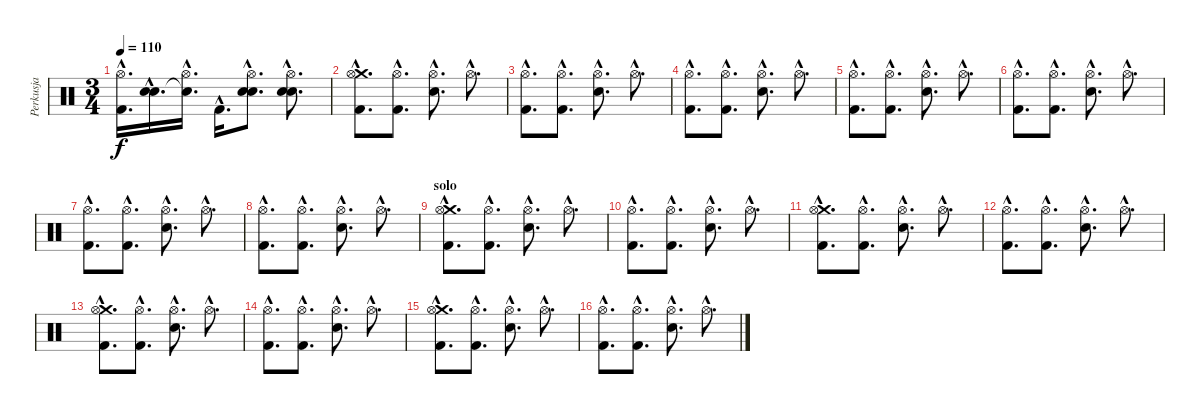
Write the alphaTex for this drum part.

\track ("Perkusja" "Perkusja") {instrument percussion}
\staff {score}
\articulation defaults
\ts (3 4)
\tempo 110
\clef neutral
\ks c
("Kick (hit) 2"{hac} "Hi-Hat (open)"{hac}).16{d dy f} ("Electric Snare (hit)"{hac} "Snare (hit) 2"{hac}).16{d} ("Snare (hit)"{hac t} "Hi-Hat (open)"{hac}).16{d} "Kick (hit) 2"{hac}.16{d} ("Electric Snare (hit)"{hac} "Snare (hit) 2"{hac} "Hi-Hat (open)"{hac}).8{d} ("Electric Snare (hit)"{hac} "Snare (hit) 2"{hac} "Hi-Hat (open)"{hac}).8{d} |
("Kick (hit) 2"{hac} "Crash medium (hit)"{hac} "Hi-Hat (open)"{hac}).8{d} ("Kick (hit) 2"{hac} "Hi-Hat (open)"{hac}).8{d} ("Electric Snare (hit)"{hac} "Hi-Hat (open)"{hac}).8{d} "Hi-Hat (open)"{hac}.8{d} |
("Kick (hit) 2"{hac} "Hi-Hat (open)"{hac}).8{d} ("Kick (hit) 2"{hac} "Hi-Hat (open)"{hac}).8{d} ("Electric Snare (hit)"{hac} "Hi-Hat (open)"{hac}).8{d} "Hi-Hat (open)"{hac}.8{d} |
("Kick (hit) 2"{hac} "Hi-Hat (open)"{hac}).8{d} ("Kick (hit) 2"{hac} "Hi-Hat (open)"{hac}).8{d} ("Electric Snare (hit)"{hac} "Hi-Hat (open)"{hac}).8{d} "Hi-Hat (open)"{hac}.8{d} |
("Kick (hit) 2"{hac} "Hi-Hat (open)"{hac}).8{d} ("Kick (hit) 2"{hac} "Hi-Hat (open)"{hac}).8{d} ("Electric Snare (hit)"{hac} "Hi-Hat (open)"{hac}).8{d} "Hi-Hat (open)"{hac}.8{d} |
("Kick (hit) 2"{hac} "Hi-Hat (open)"{hac}).8{d} ("Kick (hit) 2"{hac} "Hi-Hat (open)"{hac}).8{d} ("Electric Snare (hit)"{hac} "Hi-Hat (open)"{hac}).8{d} "Hi-Hat (open)"{hac}.8{d} |
("Kick (hit) 2"{hac} "Hi-Hat (open)"{hac}).8{d} ("Kick (hit) 2"{hac} "Hi-Hat (open)"{hac}).8{d} ("Electric Snare (hit)"{hac} "Hi-Hat (open)"{hac}).8{d} "Hi-Hat (open)"{hac}.8{d} |
("Kick (hit) 2"{hac} "Hi-Hat (open)"{hac}).8{d} ("Kick (hit) 2"{hac} "Hi-Hat (open)"{hac}).8{d} ("Electric Snare (hit)"{hac} "Hi-Hat (open)"{hac}).8{d} "Hi-Hat (open)"{hac}.8{d} |
\section ("" "solo")
("Kick (hit) 2"{hac} "Crash medium (hit)"{hac} "Hi-Hat (open)"{hac}).8{d} ("Kick (hit) 2"{hac} "Hi-Hat (open)"{hac}).8{d} ("Electric Snare (hit)"{hac} "Hi-Hat (open)"{hac}).8{d} "Hi-Hat (open)"{hac}.8{d} |
("Kick (hit) 2"{hac} "Hi-Hat (open)"{hac}).8{d} ("Kick (hit) 2"{hac} "Hi-Hat (open)"{hac}).8{d} ("Electric Snare (hit)"{hac} "Hi-Hat (open)"{hac}).8{d} "Hi-Hat (open)"{hac}.8{d} |
("Kick (hit) 2"{hac} "Crash medium (hit)"{hac} "Hi-Hat (open)"{hac}).8{d} ("Kick (hit) 2"{hac} "Hi-Hat (open)"{hac}).8{d} ("Electric Snare (hit)"{hac} "Hi-Hat (open)"{hac}).8{d} "Hi-Hat (open)"{hac}.8{d} |
("Kick (hit) 2"{hac} "Hi-Hat (open)"{hac}).8{d} ("Kick (hit) 2"{hac} "Hi-Hat (open)"{hac}).8{d} ("Electric Snare (hit)"{hac} "Hi-Hat (open)"{hac}).8{d} "Hi-Hat (open)"{hac}.8{d} |
("Kick (hit) 2"{hac} "Crash medium (hit)"{hac} "Hi-Hat (open)"{hac}).8{d} ("Kick (hit) 2"{hac} "Hi-Hat (open)"{hac}).8{d} ("Electric Snare (hit)"{hac} "Hi-Hat (open)"{hac}).8{d} "Hi-Hat (open)"{hac}.8{d} |
("Kick (hit) 2"{hac} "Hi-Hat (open)"{hac}).8{d} ("Kick (hit) 2"{hac} "Hi-Hat (open)"{hac}).8{d} ("Electric Snare (hit)"{hac} "Hi-Hat (open)"{hac}).8{d} "Hi-Hat (open)"{hac}.8{d} |
("Kick (hit) 2"{hac} "Crash medium (hit)"{hac} "Hi-Hat (open)"{hac}).8{d} ("Kick (hit) 2"{hac} "Hi-Hat (open)"{hac}).8{d} ("Electric Snare (hit)"{hac} "Hi-Hat (open)"{hac}).8{d} "Hi-Hat (open)"{hac}.8{d} |
("Kick (hit) 2"{hac} "Hi-Hat (open)"{hac}).8{d} ("Kick (hit) 2"{hac} "Hi-Hat (open)"{hac}).8{d} ("Electric Snare (hit)"{hac} "Hi-Hat (open)"{hac}).8{d} "Hi-Hat (open)"{hac}.8{d}
